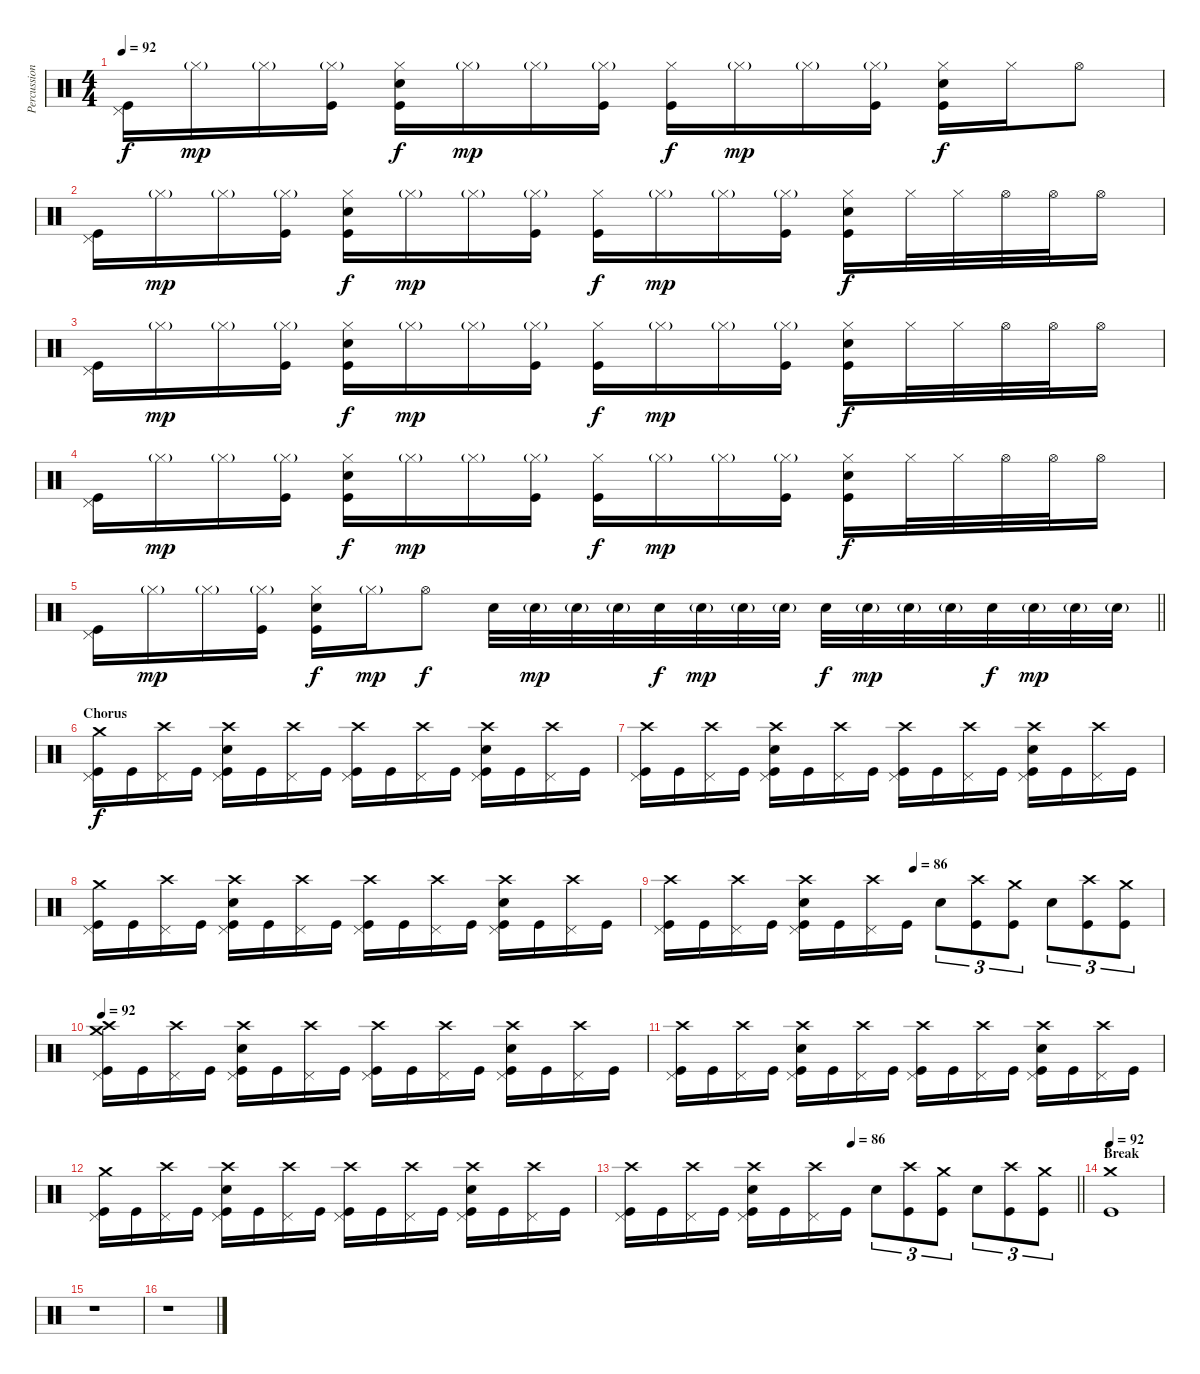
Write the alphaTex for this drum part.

\track ("Percussion" "Percussion") {instrument percussion}
\staff {score}
\articulation defaults
\ts (4 4)
\tempo 92
\clef neutral
\ks c
("Pedal Hi-Hat (hit)" "Kick (hit)").16{dy f} "Hi-Hat (closed)"{g}.16{dy mp} "Hi-Hat (closed)"{g}.16 ("Hi-Hat (closed)"{g} "Kick (hit)").16 ("Hi-Hat (closed)" "Electric Snare (hit)" "Kick (hit)").16{dy f} "Hi-Hat (closed)"{g}.16{dy mp} "Hi-Hat (closed)"{g}.16 ("Hi-Hat (closed)"{g} "Kick (hit)").16 ("Hi-Hat (closed)" "Kick (hit)").16{dy f} "Hi-Hat (closed)"{g}.16{dy mp} "Hi-Hat (closed)"{g}.16 ("Hi-Hat (closed)"{g} "Kick (hit)").16 ("Hi-Hat (closed)" "Electric Snare (hit)" "Kick (hit)").16{dy f} "Hi-Hat (closed)".16 "Hi-Hat (open)".8 |
("Pedal Hi-Hat (hit)" "Kick (hit)").16 "Hi-Hat (closed)"{g}.16{dy mp} "Hi-Hat (closed)"{g}.16 ("Hi-Hat (closed)"{g} "Kick (hit)").16 ("Hi-Hat (closed)" "Electric Snare (hit)" "Kick (hit)").16{dy f} "Hi-Hat (closed)"{g}.16{dy mp} "Hi-Hat (closed)"{g}.16 ("Hi-Hat (closed)"{g} "Kick (hit)").16 ("Hi-Hat (closed)" "Kick (hit)").16{dy f} "Hi-Hat (closed)"{g}.16{dy mp} "Hi-Hat (closed)"{g}.16 ("Hi-Hat (closed)"{g} "Kick (hit)").16 ("Hi-Hat (closed)" "Electric Snare (hit)" "Kick (hit)").16{dy f} "Hi-Hat (closed)".32 "Hi-Hat (closed)".32 "Hi-Hat (open)".32 "Hi-Hat (open)".32 "Hi-Hat (open)".16 |
("Pedal Hi-Hat (hit)" "Kick (hit)").16 "Hi-Hat (closed)"{g}.16{dy mp} "Hi-Hat (closed)"{g}.16 ("Hi-Hat (closed)"{g} "Kick (hit)").16 ("Hi-Hat (closed)" "Electric Snare (hit)" "Kick (hit)").16{dy f} "Hi-Hat (closed)"{g}.16{dy mp} "Hi-Hat (closed)"{g}.16 ("Hi-Hat (closed)"{g} "Kick (hit)").16 ("Hi-Hat (closed)" "Kick (hit)").16{dy f} "Hi-Hat (closed)"{g}.16{dy mp} "Hi-Hat (closed)"{g}.16 ("Hi-Hat (closed)"{g} "Kick (hit)").16 ("Hi-Hat (closed)" "Electric Snare (hit)" "Kick (hit)").16{dy f} "Hi-Hat (closed)".32 "Hi-Hat (closed)".32 "Hi-Hat (open)".32 "Hi-Hat (open)".32 "Hi-Hat (open)".16 |
("Pedal Hi-Hat (hit)" "Kick (hit)").16 "Hi-Hat (closed)"{g}.16{dy mp} "Hi-Hat (closed)"{g}.16 ("Hi-Hat (closed)"{g} "Kick (hit)").16 ("Hi-Hat (closed)" "Electric Snare (hit)" "Kick (hit)").16{dy f} "Hi-Hat (closed)"{g}.16{dy mp} "Hi-Hat (closed)"{g}.16 ("Hi-Hat (closed)"{g} "Kick (hit)").16 ("Hi-Hat (closed)" "Kick (hit)").16{dy f} "Hi-Hat (closed)"{g}.16{dy mp} "Hi-Hat (closed)"{g}.16 ("Hi-Hat (closed)"{g} "Kick (hit)").16 ("Hi-Hat (closed)" "Electric Snare (hit)" "Kick (hit)").16{dy f} "Hi-Hat (closed)".32 "Hi-Hat (closed)".32 "Hi-Hat (open)".32 "Hi-Hat (open)".32 "Hi-Hat (open)".16 |
\barLineRight lightlight
("Pedal Hi-Hat (hit)" "Kick (hit)").16 "Hi-Hat (closed)"{g}.16{dy mp} "Hi-Hat (closed)"{g}.16 ("Hi-Hat (closed)"{g} "Kick (hit)").16 ("Hi-Hat (closed)" "Electric Snare (hit)" "Kick (hit)").16{dy f} "Hi-Hat (closed)"{g}.16{dy mp} "Hi-Hat (open)".8{dy f} "Electric Snare (hit)".32 "Electric Snare (hit)"{g}.32{dy mp} "Electric Snare (hit)"{g}.32 "Electric Snare (hit)"{g}.32 "Electric Snare (hit)".32{dy f} "Electric Snare (hit)"{g}.32{dy mp} "Electric Snare (hit)"{g}.32 "Electric Snare (hit)"{g}.32 "Electric Snare (hit)".32{dy f} "Electric Snare (hit)"{g}.32{dy mp} "Electric Snare (hit)"{g}.32 "Electric Snare (hit)"{g}.32 "Electric Snare (hit)".32{dy f} "Electric Snare (hit)"{g}.32{dy mp} "Electric Snare (hit)"{g}.32 "Electric Snare (hit)"{g}.32 |
\section ("" "Chorus")
("Crash medium (hit)" "Pedal Hi-Hat (hit)" "Kick (hit)").16{dy f} "Kick (hit)".16 ("Crash high (hit)" "Pedal Hi-Hat (hit)").16 "Kick (hit)".16 ("Crash high (hit)" "Pedal Hi-Hat (hit)" "Electric Snare (hit)" "Kick (hit)").16 "Kick (hit)".16 ("Crash high (hit)" "Pedal Hi-Hat (hit)").16 "Kick (hit)".16 ("Crash high (hit)" "Pedal Hi-Hat (hit)" "Kick (hit)").16 "Kick (hit)".16 ("Crash high (hit)" "Pedal Hi-Hat (hit)").16 "Kick (hit)".16 ("Crash high (hit)" "Pedal Hi-Hat (hit)" "Electric Snare (hit)" "Kick (hit)").16 "Kick (hit)".16 ("Crash high (hit)" "Pedal Hi-Hat (hit)").16 "Kick (hit)".16 |
("Crash high (hit)" "Pedal Hi-Hat (hit)" "Kick (hit)").16 "Kick (hit)".16 ("Crash high (hit)" "Pedal Hi-Hat (hit)").16 "Kick (hit)".16 ("Crash high (hit)" "Pedal Hi-Hat (hit)" "Electric Snare (hit)" "Kick (hit)").16 "Kick (hit)".16 ("Crash high (hit)" "Pedal Hi-Hat (hit)").16 "Kick (hit)".16 ("Crash high (hit)" "Pedal Hi-Hat (hit)" "Kick (hit)").16 "Kick (hit)".16 ("Crash high (hit)" "Pedal Hi-Hat (hit)").16 "Kick (hit)".16 ("Crash high (hit)" "Pedal Hi-Hat (hit)" "Electric Snare (hit)" "Kick (hit)").16 "Kick (hit)".16 ("Crash high (hit)" "Pedal Hi-Hat (hit)").16 "Kick (hit)".16 |
("Crash medium (hit)" "Pedal Hi-Hat (hit)" "Kick (hit)").16 "Kick (hit)".16 ("Crash high (hit)" "Pedal Hi-Hat (hit)").16 "Kick (hit)".16 ("Crash high (hit)" "Pedal Hi-Hat (hit)" "Electric Snare (hit)" "Kick (hit)").16 "Kick (hit)".16 ("Crash high (hit)" "Pedal Hi-Hat (hit)").16 "Kick (hit)".16 ("Crash high (hit)" "Pedal Hi-Hat (hit)" "Kick (hit)").16 "Kick (hit)".16 ("Crash high (hit)" "Pedal Hi-Hat (hit)").16 "Kick (hit)".16 ("Crash high (hit)" "Pedal Hi-Hat (hit)" "Electric Snare (hit)" "Kick (hit)").16 "Kick (hit)".16 ("Crash high (hit)" "Pedal Hi-Hat (hit)").16 "Kick (hit)".16 |
\tempo (86 0.5)
("Crash high (hit)" "Pedal Hi-Hat (hit)" "Kick (hit)").16 "Kick (hit)".16 ("Crash high (hit)" "Pedal Hi-Hat (hit)").16 "Kick (hit)".16 ("Crash high (hit)" "Pedal Hi-Hat (hit)" "Electric Snare (hit)" "Kick (hit)").16 "Kick (hit)".16 ("Crash high (hit)" "Pedal Hi-Hat (hit)").16 "Kick (hit)".16 "Electric Snare (hit)".8{tu (3 2)} ("Crash high (hit)" "Kick (hit)").8{tu (3 2)} ("Crash medium (hit)" "Kick (hit)").8{tu (3 2)} "Electric Snare (hit)".8{tu (3 2)} ("Crash high (hit)" "Kick (hit)").8{tu (3 2)} ("Crash medium (hit)" "Kick (hit)").8{tu (3 2)} |
\tempo 92
("Crash high (hit)" "Crash medium (hit)" "Pedal Hi-Hat (hit)" "Kick (hit)").16 "Kick (hit)".16 ("Crash high (hit)" "Pedal Hi-Hat (hit)").16 "Kick (hit)".16 ("Crash high (hit)" "Pedal Hi-Hat (hit)" "Electric Snare (hit)" "Kick (hit)").16 "Kick (hit)".16 ("Crash high (hit)" "Pedal Hi-Hat (hit)").16 "Kick (hit)".16 ("Crash high (hit)" "Pedal Hi-Hat (hit)" "Kick (hit)").16 "Kick (hit)".16 ("Crash high (hit)" "Pedal Hi-Hat (hit)").16 "Kick (hit)".16 ("Crash high (hit)" "Pedal Hi-Hat (hit)" "Electric Snare (hit)" "Kick (hit)").16 "Kick (hit)".16 ("Crash high (hit)" "Pedal Hi-Hat (hit)").16 "Kick (hit)".16 |
("Crash high (hit)" "Pedal Hi-Hat (hit)" "Kick (hit)").16 "Kick (hit)".16 ("Crash high (hit)" "Pedal Hi-Hat (hit)").16 "Kick (hit)".16 ("Crash high (hit)" "Pedal Hi-Hat (hit)" "Electric Snare (hit)" "Kick (hit)").16 "Kick (hit)".16 ("Crash high (hit)" "Pedal Hi-Hat (hit)").16 "Kick (hit)".16 ("Crash high (hit)" "Pedal Hi-Hat (hit)" "Kick (hit)").16 "Kick (hit)".16 ("Crash high (hit)" "Pedal Hi-Hat (hit)").16 "Kick (hit)".16 ("Crash high (hit)" "Pedal Hi-Hat (hit)" "Electric Snare (hit)" "Kick (hit)").16 "Kick (hit)".16 ("Crash high (hit)" "Pedal Hi-Hat (hit)").16 "Kick (hit)".16 |
("Crash medium (hit)" "Pedal Hi-Hat (hit)" "Kick (hit)").16 "Kick (hit)".16 ("Crash high (hit)" "Pedal Hi-Hat (hit)").16 "Kick (hit)".16 ("Crash high (hit)" "Pedal Hi-Hat (hit)" "Electric Snare (hit)" "Kick (hit)").16 "Kick (hit)".16 ("Crash high (hit)" "Pedal Hi-Hat (hit)").16 "Kick (hit)".16 ("Crash high (hit)" "Pedal Hi-Hat (hit)" "Kick (hit)").16 "Kick (hit)".16 ("Crash high (hit)" "Pedal Hi-Hat (hit)").16 "Kick (hit)".16 ("Crash high (hit)" "Pedal Hi-Hat (hit)" "Electric Snare (hit)" "Kick (hit)").16 "Kick (hit)".16 ("Crash high (hit)" "Pedal Hi-Hat (hit)").16 "Kick (hit)".16 |
\tempo (86 0.5)
\barLineRight lightlight
("Crash high (hit)" "Pedal Hi-Hat (hit)" "Kick (hit)").16 "Kick (hit)".16 ("Crash high (hit)" "Pedal Hi-Hat (hit)").16 "Kick (hit)".16 ("Crash high (hit)" "Pedal Hi-Hat (hit)" "Electric Snare (hit)" "Kick (hit)").16 "Kick (hit)".16 ("Crash high (hit)" "Pedal Hi-Hat (hit)").16 "Kick (hit)".16 "Electric Snare (hit)".8{tu (3 2)} ("Crash high (hit)" "Kick (hit)").8{tu (3 2)} ("Crash medium (hit)" "Kick (hit)").8{tu (3 2)} "Electric Snare (hit)".8{tu (3 2)} ("Crash high (hit)" "Kick (hit)").8{tu (3 2)} ("Crash medium (hit)" "Kick (hit)").8{tu (3 2)} |
\section ("" "Break")
\tempo 92
("Crash medium (hit)" "Kick (hit)").1 |
r.1 |
r.1
